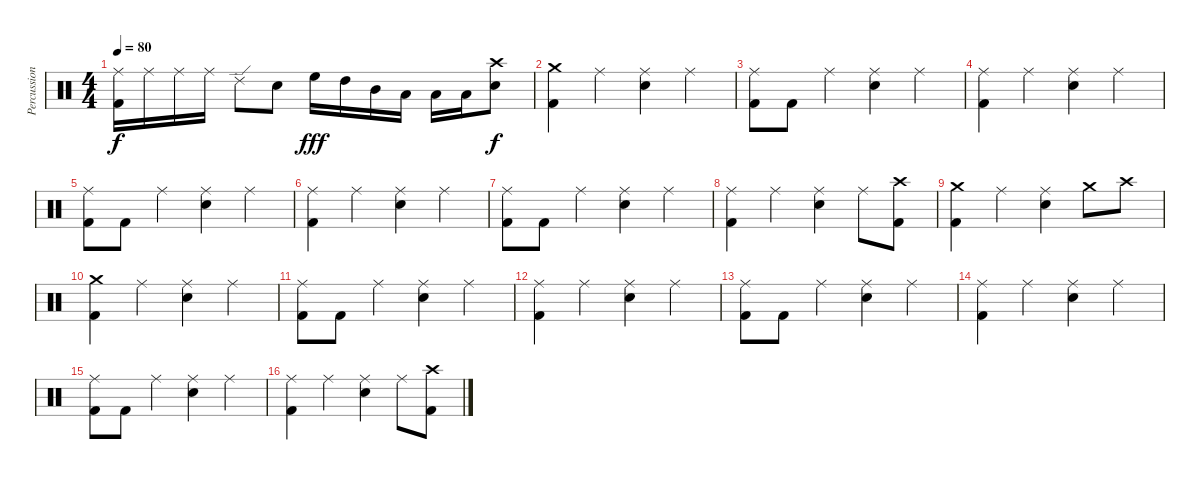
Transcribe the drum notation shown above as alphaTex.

\track ("Percussion" "Percussion") {instrument percussion}
\staff {score}
\articulation defaults
\ts (4 4)
\tempo 80
\clef neutral
\ks c
("Ride (middle)" "Kick (hit) 2").16{dy f} "Ride (middle)".16 "Ride (middle)".16 "Ride (middle)".16 "Ride (edge) 2".8 "Snare (hit) 2".8 "High Floor Tom (hit)".16{dy fff} "High Tom (hit)".16 "Mid Tom (hit)".16 "Low Tom (hit)".16 "Low Tom (hit)".16 "Low Tom (hit)".16 ("Crash high (hit)" "Snare (hit) 2").8{dy f} |
("Crash medium (hit)" "Kick (hit) 2").4 "Ride (middle)".4 ("Ride (middle)" "Snare (hit) 2").4 "Ride (middle)".4 |
("Ride (middle)" "Kick (hit) 2").8 "Kick (hit) 2".8 "Ride (middle)".4 ("Ride (middle)" "Snare (hit) 2").4 "Ride (middle)".4 |
("Ride (middle)" "Kick (hit) 2").4 "Ride (middle)".4 ("Ride (middle)" "Snare (hit) 2").4 "Ride (middle)".4 |
("Ride (middle)" "Kick (hit) 2").8 "Kick (hit) 2".8 "Ride (middle)".4 ("Ride (middle)" "Snare (hit) 2").4 "Ride (middle)".4 |
("Ride (middle)" "Kick (hit) 2").4 "Ride (middle)".4 ("Ride (middle)" "Snare (hit) 2").4 "Ride (middle)".4 |
("Ride (middle)" "Kick (hit) 2").8 "Kick (hit) 2".8 "Ride (middle)".4 ("Ride (middle)" "Snare (hit) 2").4 "Ride (middle)".4 |
("Ride (middle)" "Kick (hit) 2").4 "Ride (middle)".4 ("Ride (middle)" "Snare (hit) 2").4 "Ride (middle)".8 ("Crash high (hit)" "Kick (hit) 2").8 |
("Crash medium (hit)" "Kick (hit) 2").4 "Ride (middle)".4 ("Ride (middle)" "Snare (hit) 2").4 "Crash medium (hit)".8 "Crash high (hit)".8 |
("Crash medium (hit)" "Kick (hit) 2").4 "Ride (middle)".4 ("Ride (middle)" "Snare (hit) 2").4 "Ride (middle)".4 |
("Ride (middle)" "Kick (hit) 2").8 "Kick (hit) 2".8 "Ride (middle)".4 ("Ride (middle)" "Snare (hit) 2").4 "Ride (middle)".4 |
("Ride (middle)" "Kick (hit) 2").4 "Ride (middle)".4 ("Ride (middle)" "Snare (hit) 2").4 "Ride (middle)".4 |
("Ride (middle)" "Kick (hit) 2").8 "Kick (hit) 2".8 "Ride (middle)".4 ("Ride (middle)" "Snare (hit) 2").4 "Ride (middle)".4 |
("Ride (middle)" "Kick (hit) 2").4 "Ride (middle)".4 ("Ride (middle)" "Snare (hit) 2").4 "Ride (middle)".4 |
("Ride (middle)" "Kick (hit) 2").8 "Kick (hit) 2".8 "Ride (middle)".4 ("Ride (middle)" "Snare (hit) 2").4 "Ride (middle)".4 |
("Ride (middle)" "Kick (hit) 2").4 "Ride (middle)".4 ("Ride (middle)" "Snare (hit) 2").4 "Ride (middle)".8 ("Crash high (hit)" "Kick (hit) 2").8
